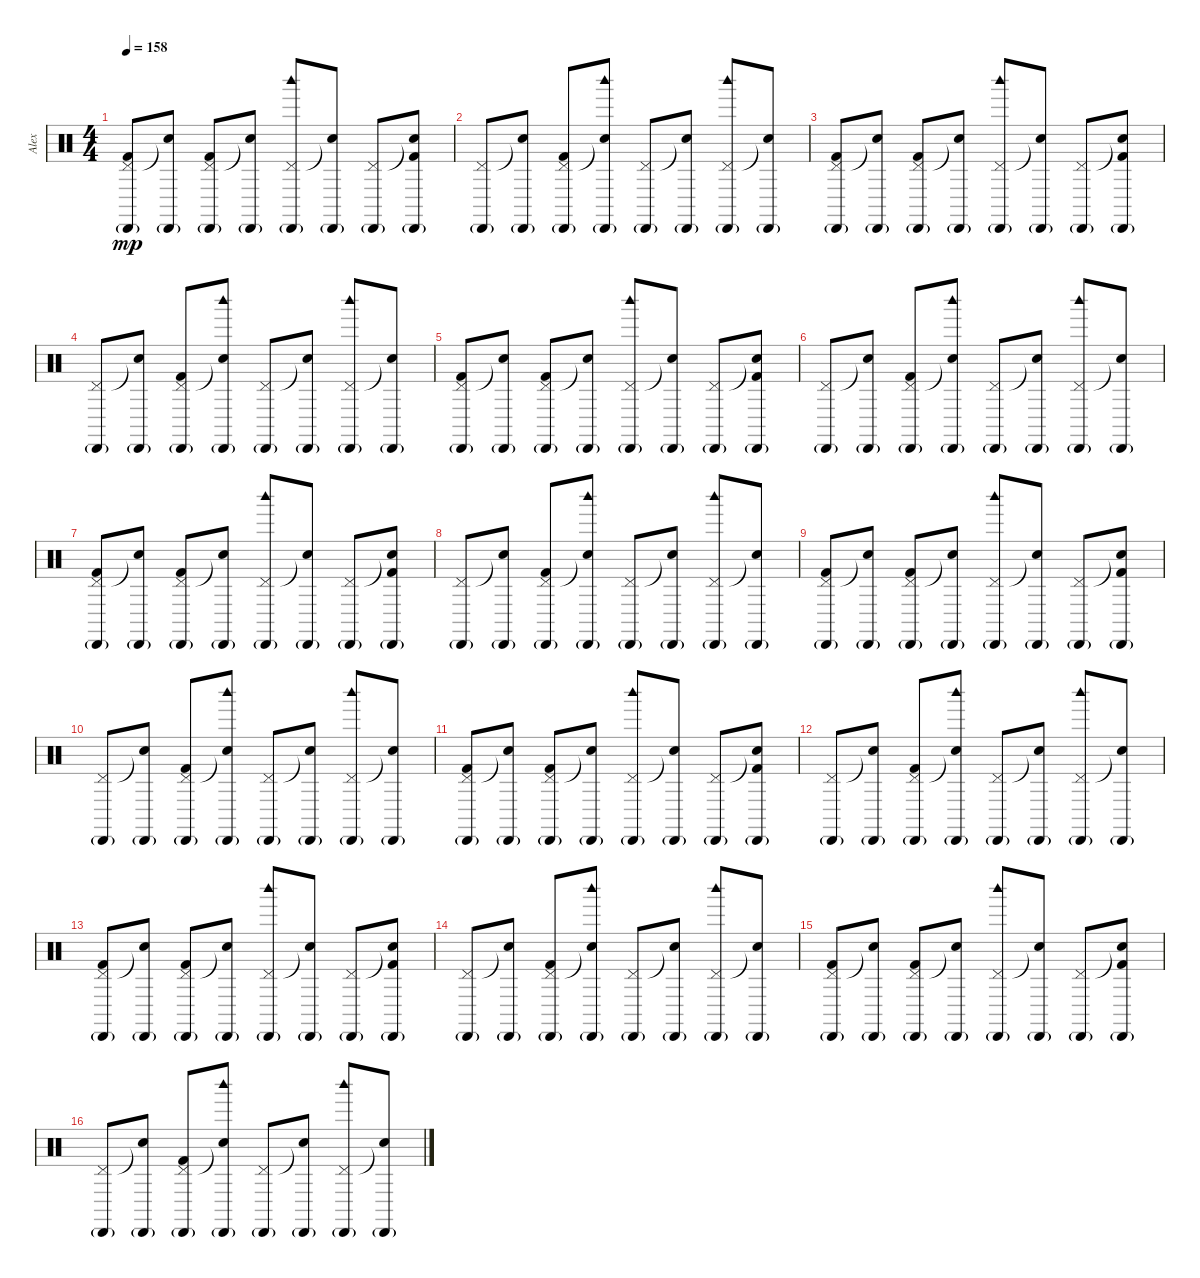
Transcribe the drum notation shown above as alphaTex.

\track ("Alex" "Alex") {instrument percussion}
\staff {score}
\articulation defaults
\ts (4 4)
\tempo 158
\clef neutral
\ks c
("Pedal Hi-Hat (hit)" "Kick (hit) 2" "Cabasa (hit)"{g}).8{dy mp} ("Snare (hit)"{t} "Cabasa (hit)"{g}).8 ("Pedal Hi-Hat (hit)" "Kick (hit) 2" "Cabasa (hit)"{g}).8 ("Snare (hit)"{t} "Cabasa (hit)"{g}).8 ("Pedal Hi-Hat (hit)" "Woodblock high (hit)" "Cabasa (hit)"{g}).8 ("Snare (hit)"{t} "Cabasa (hit)"{g}).8 ("Pedal Hi-Hat (hit)" "Cabasa (hit)"{g}).8 ("Snare (hit)"{t} "Kick (hit) 2" "Cabasa (hit)"{g}).8 |
("Pedal Hi-Hat (hit)" "Cabasa (hit)"{g}).8 ("Snare (hit)"{t} "Cabasa (hit)"{g}).8 ("Pedal Hi-Hat (hit)" "Kick (hit) 2" "Cabasa (hit)"{g}).8 ("Snare (hit)"{t} "Woodblock high (hit)" "Cabasa (hit)"{g}).8 ("Pedal Hi-Hat (hit)" "Cabasa (hit)"{g}).8 ("Snare (hit)"{t} "Cabasa (hit)"{g}).8 ("Pedal Hi-Hat (hit)" "Woodblock high (hit)" "Cabasa (hit)"{g}).8 ("Snare (hit)"{t} "Cabasa (hit)"{g}).8 |
("Pedal Hi-Hat (hit)" "Kick (hit) 2" "Cabasa (hit)"{g}).8 ("Snare (hit)"{t} "Cabasa (hit)"{g}).8 ("Pedal Hi-Hat (hit)" "Kick (hit) 2" "Cabasa (hit)"{g}).8 ("Snare (hit)"{t} "Cabasa (hit)"{g}).8 ("Pedal Hi-Hat (hit)" "Woodblock high (hit)" "Cabasa (hit)"{g}).8 ("Snare (hit)"{t} "Cabasa (hit)"{g}).8 ("Pedal Hi-Hat (hit)" "Cabasa (hit)"{g}).8 ("Snare (hit)"{t} "Kick (hit) 2" "Cabasa (hit)"{g}).8 |
("Pedal Hi-Hat (hit)" "Cabasa (hit)"{g}).8 ("Snare (hit)"{t} "Cabasa (hit)"{g}).8 ("Pedal Hi-Hat (hit)" "Kick (hit) 2" "Cabasa (hit)"{g}).8 ("Snare (hit)"{t} "Woodblock high (hit)" "Cabasa (hit)"{g}).8 ("Pedal Hi-Hat (hit)" "Cabasa (hit)"{g}).8 ("Snare (hit)"{t} "Cabasa (hit)"{g}).8 ("Pedal Hi-Hat (hit)" "Woodblock high (hit)" "Cabasa (hit)"{g}).8 ("Snare (hit)"{t} "Cabasa (hit)"{g}).8 |
("Pedal Hi-Hat (hit)" "Kick (hit) 2" "Cabasa (hit)"{g}).8 ("Snare (hit)"{t} "Cabasa (hit)"{g}).8 ("Pedal Hi-Hat (hit)" "Kick (hit) 2" "Cabasa (hit)"{g}).8 ("Snare (hit)"{t} "Cabasa (hit)"{g}).8 ("Pedal Hi-Hat (hit)" "Woodblock high (hit)" "Cabasa (hit)"{g}).8 ("Snare (hit)"{t} "Cabasa (hit)"{g}).8 ("Pedal Hi-Hat (hit)" "Cabasa (hit)"{g}).8 ("Snare (hit)"{t} "Kick (hit) 2" "Cabasa (hit)"{g}).8 |
("Pedal Hi-Hat (hit)" "Cabasa (hit)"{g}).8 ("Snare (hit)"{t} "Cabasa (hit)"{g}).8 ("Pedal Hi-Hat (hit)" "Kick (hit) 2" "Cabasa (hit)"{g}).8 ("Snare (hit)"{t} "Woodblock high (hit)" "Cabasa (hit)"{g}).8 ("Pedal Hi-Hat (hit)" "Cabasa (hit)"{g}).8 ("Snare (hit)"{t} "Cabasa (hit)"{g}).8 ("Pedal Hi-Hat (hit)" "Woodblock high (hit)" "Cabasa (hit)"{g}).8 ("Snare (hit)"{t} "Cabasa (hit)"{g}).8 |
("Pedal Hi-Hat (hit)" "Kick (hit) 2" "Cabasa (hit)"{g}).8 ("Snare (hit)"{t} "Cabasa (hit)"{g}).8 ("Pedal Hi-Hat (hit)" "Kick (hit) 2" "Cabasa (hit)"{g}).8 ("Snare (hit)"{t} "Cabasa (hit)"{g}).8 ("Pedal Hi-Hat (hit)" "Woodblock high (hit)" "Cabasa (hit)"{g}).8 ("Snare (hit)"{t} "Cabasa (hit)"{g}).8 ("Pedal Hi-Hat (hit)" "Cabasa (hit)"{g}).8 ("Snare (hit)"{t} "Kick (hit) 2" "Cabasa (hit)"{g}).8 |
("Pedal Hi-Hat (hit)" "Cabasa (hit)"{g}).8 ("Snare (hit)"{t} "Cabasa (hit)"{g}).8 ("Pedal Hi-Hat (hit)" "Kick (hit) 2" "Cabasa (hit)"{g}).8 ("Snare (hit)"{t} "Woodblock high (hit)" "Cabasa (hit)"{g}).8 ("Pedal Hi-Hat (hit)" "Cabasa (hit)"{g}).8 ("Snare (hit)"{t} "Cabasa (hit)"{g}).8 ("Pedal Hi-Hat (hit)" "Woodblock high (hit)" "Cabasa (hit)"{g}).8 ("Snare (hit)"{t} "Cabasa (hit)"{g}).8 |
("Pedal Hi-Hat (hit)" "Kick (hit) 2" "Cabasa (hit)"{g}).8 ("Snare (hit)"{t} "Cabasa (hit)"{g}).8 ("Pedal Hi-Hat (hit)" "Kick (hit) 2" "Cabasa (hit)"{g}).8 ("Snare (hit)"{t} "Cabasa (hit)"{g}).8 ("Pedal Hi-Hat (hit)" "Woodblock high (hit)" "Cabasa (hit)"{g}).8 ("Snare (hit)"{t} "Cabasa (hit)"{g}).8 ("Pedal Hi-Hat (hit)" "Cabasa (hit)"{g}).8 ("Snare (hit)"{t} "Kick (hit) 2" "Cabasa (hit)"{g}).8 |
("Pedal Hi-Hat (hit)" "Cabasa (hit)"{g}).8 ("Snare (hit)"{t} "Cabasa (hit)"{g}).8 ("Pedal Hi-Hat (hit)" "Kick (hit) 2" "Cabasa (hit)"{g}).8 ("Snare (hit)"{t} "Woodblock high (hit)" "Cabasa (hit)"{g}).8 ("Pedal Hi-Hat (hit)" "Cabasa (hit)"{g}).8 ("Snare (hit)"{t} "Cabasa (hit)"{g}).8 ("Pedal Hi-Hat (hit)" "Woodblock high (hit)" "Cabasa (hit)"{g}).8 ("Snare (hit)"{t} "Cabasa (hit)"{g}).8 |
("Pedal Hi-Hat (hit)" "Kick (hit) 2" "Cabasa (hit)"{g}).8 ("Snare (hit)"{t} "Cabasa (hit)"{g}).8 ("Pedal Hi-Hat (hit)" "Kick (hit) 2" "Cabasa (hit)"{g}).8 ("Snare (hit)"{t} "Cabasa (hit)"{g}).8 ("Pedal Hi-Hat (hit)" "Woodblock high (hit)" "Cabasa (hit)"{g}).8 ("Snare (hit)"{t} "Cabasa (hit)"{g}).8 ("Pedal Hi-Hat (hit)" "Cabasa (hit)"{g}).8 ("Snare (hit)"{t} "Kick (hit) 2" "Cabasa (hit)"{g}).8 |
("Pedal Hi-Hat (hit)" "Cabasa (hit)"{g}).8 ("Snare (hit)"{t} "Cabasa (hit)"{g}).8 ("Pedal Hi-Hat (hit)" "Kick (hit) 2" "Cabasa (hit)"{g}).8 ("Snare (hit)"{t} "Woodblock high (hit)" "Cabasa (hit)"{g}).8 ("Pedal Hi-Hat (hit)" "Cabasa (hit)"{g}).8 ("Snare (hit)"{t} "Cabasa (hit)"{g}).8 ("Pedal Hi-Hat (hit)" "Woodblock high (hit)" "Cabasa (hit)"{g}).8 ("Snare (hit)"{t} "Cabasa (hit)"{g}).8 |
("Pedal Hi-Hat (hit)" "Kick (hit) 2" "Cabasa (hit)"{g}).8 ("Snare (hit)"{t} "Cabasa (hit)"{g}).8 ("Pedal Hi-Hat (hit)" "Kick (hit) 2" "Cabasa (hit)"{g}).8 ("Snare (hit)"{t} "Cabasa (hit)"{g}).8 ("Pedal Hi-Hat (hit)" "Woodblock high (hit)" "Cabasa (hit)"{g}).8 ("Snare (hit)"{t} "Cabasa (hit)"{g}).8 ("Pedal Hi-Hat (hit)" "Cabasa (hit)"{g}).8 ("Snare (hit)"{t} "Kick (hit) 2" "Cabasa (hit)"{g}).8 |
("Pedal Hi-Hat (hit)" "Cabasa (hit)"{g}).8 ("Snare (hit)"{t} "Cabasa (hit)"{g}).8 ("Pedal Hi-Hat (hit)" "Kick (hit) 2" "Cabasa (hit)"{g}).8 ("Snare (hit)"{t} "Woodblock high (hit)" "Cabasa (hit)"{g}).8 ("Pedal Hi-Hat (hit)" "Cabasa (hit)"{g}).8 ("Snare (hit)"{t} "Cabasa (hit)"{g}).8 ("Pedal Hi-Hat (hit)" "Woodblock high (hit)" "Cabasa (hit)"{g}).8 ("Snare (hit)"{t} "Cabasa (hit)"{g}).8 |
("Pedal Hi-Hat (hit)" "Kick (hit) 2" "Cabasa (hit)"{g}).8 ("Snare (hit)"{t} "Cabasa (hit)"{g}).8 ("Pedal Hi-Hat (hit)" "Kick (hit) 2" "Cabasa (hit)"{g}).8 ("Snare (hit)"{t} "Cabasa (hit)"{g}).8 ("Pedal Hi-Hat (hit)" "Woodblock high (hit)" "Cabasa (hit)"{g}).8 ("Snare (hit)"{t} "Cabasa (hit)"{g}).8 ("Pedal Hi-Hat (hit)" "Cabasa (hit)"{g}).8 ("Snare (hit)"{t} "Kick (hit) 2" "Cabasa (hit)"{g}).8 |
("Pedal Hi-Hat (hit)" "Cabasa (hit)"{g}).8 ("Snare (hit)"{t} "Cabasa (hit)"{g}).8 ("Pedal Hi-Hat (hit)" "Kick (hit) 2" "Cabasa (hit)"{g}).8 ("Snare (hit)"{t} "Woodblock high (hit)" "Cabasa (hit)"{g}).8 ("Pedal Hi-Hat (hit)" "Cabasa (hit)"{g}).8 ("Snare (hit)"{t} "Cabasa (hit)"{g}).8 ("Pedal Hi-Hat (hit)" "Woodblock high (hit)" "Cabasa (hit)"{g}).8 ("Snare (hit)"{t} "Cabasa (hit)"{g}).8
